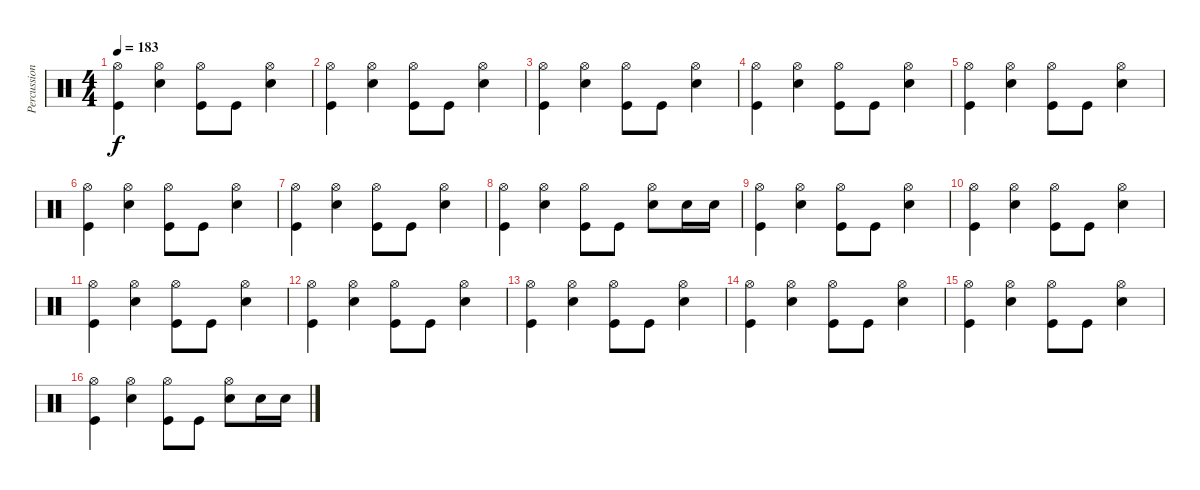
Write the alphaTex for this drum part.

\track ("Percussion" "Percussion") {instrument percussion}
\staff {score}
\articulation defaults
\ts (4 4)
\tempo 183
\clef neutral
\ks c
("Hi-Hat (open)" "Kick (hit)").4{dy f} ("Hi-Hat (open)" "Electric Snare (hit)").4 ("Hi-Hat (open)" "Kick (hit)").8 "Kick (hit)".8 ("Hi-Hat (open)" "Electric Snare (hit)").4 |
("Hi-Hat (open)" "Kick (hit)").4 ("Hi-Hat (open)" "Electric Snare (hit)").4 ("Hi-Hat (open)" "Kick (hit)").8 "Kick (hit)".8 ("Hi-Hat (open)" "Electric Snare (hit)").4 |
("Hi-Hat (open)" "Kick (hit)").4 ("Hi-Hat (open)" "Electric Snare (hit)").4 ("Hi-Hat (open)" "Kick (hit)").8 "Kick (hit)".8 ("Hi-Hat (open)" "Electric Snare (hit)").4 |
("Hi-Hat (open)" "Kick (hit)").4 ("Hi-Hat (open)" "Electric Snare (hit)").4 ("Hi-Hat (open)" "Kick (hit)").8 "Kick (hit)".8 ("Hi-Hat (open)" "Electric Snare (hit)").4 |
("Hi-Hat (open)" "Kick (hit)").4 ("Hi-Hat (open)" "Electric Snare (hit)").4 ("Hi-Hat (open)" "Kick (hit)").8 "Kick (hit)".8 ("Hi-Hat (open)" "Electric Snare (hit)").4 |
("Hi-Hat (open)" "Kick (hit)").4 ("Hi-Hat (open)" "Electric Snare (hit)").4 ("Hi-Hat (open)" "Kick (hit)").8 "Kick (hit)".8 ("Hi-Hat (open)" "Electric Snare (hit)").4 |
("Hi-Hat (open)" "Kick (hit)").4 ("Hi-Hat (open)" "Electric Snare (hit)").4 ("Hi-Hat (open)" "Kick (hit)").8 "Kick (hit)".8 ("Hi-Hat (open)" "Electric Snare (hit)").4 |
("Hi-Hat (open)" "Kick (hit)").4 ("Hi-Hat (open)" "Electric Snare (hit)").4 ("Hi-Hat (open)" "Kick (hit)").8 "Kick (hit)".8 ("Hi-Hat (open)" "Electric Snare (hit)").8 "Electric Snare (hit)".16 "Electric Snare (hit)".16 |
("Hi-Hat (open)" "Kick (hit)").4 ("Hi-Hat (open)" "Electric Snare (hit)").4 ("Hi-Hat (open)" "Kick (hit)").8 "Kick (hit)".8 ("Hi-Hat (open)" "Electric Snare (hit)").4 |
("Hi-Hat (open)" "Kick (hit)").4 ("Hi-Hat (open)" "Electric Snare (hit)").4 ("Hi-Hat (open)" "Kick (hit)").8 "Kick (hit)".8 ("Hi-Hat (open)" "Electric Snare (hit)").4 |
("Hi-Hat (open)" "Kick (hit)").4 ("Hi-Hat (open)" "Electric Snare (hit)").4 ("Hi-Hat (open)" "Kick (hit)").8 "Kick (hit)".8 ("Hi-Hat (open)" "Electric Snare (hit)").4 |
("Hi-Hat (open)" "Kick (hit)").4 ("Hi-Hat (open)" "Electric Snare (hit)").4 ("Hi-Hat (open)" "Kick (hit)").8 "Kick (hit)".8 ("Hi-Hat (open)" "Electric Snare (hit)").4 |
("Hi-Hat (open)" "Kick (hit)").4 ("Hi-Hat (open)" "Electric Snare (hit)").4 ("Hi-Hat (open)" "Kick (hit)").8 "Kick (hit)".8 ("Hi-Hat (open)" "Electric Snare (hit)").4 |
("Hi-Hat (open)" "Kick (hit)").4 ("Hi-Hat (open)" "Electric Snare (hit)").4 ("Hi-Hat (open)" "Kick (hit)").8 "Kick (hit)".8 ("Hi-Hat (open)" "Electric Snare (hit)").4 |
("Hi-Hat (open)" "Kick (hit)").4 ("Hi-Hat (open)" "Electric Snare (hit)").4 ("Hi-Hat (open)" "Kick (hit)").8 "Kick (hit)".8 ("Hi-Hat (open)" "Electric Snare (hit)").4 |
("Hi-Hat (open)" "Kick (hit)").4 ("Hi-Hat (open)" "Electric Snare (hit)").4 ("Hi-Hat (open)" "Kick (hit)").8 "Kick (hit)".8 ("Hi-Hat (open)" "Electric Snare (hit)").8 "Electric Snare (hit)".16 "Electric Snare (hit)".16
